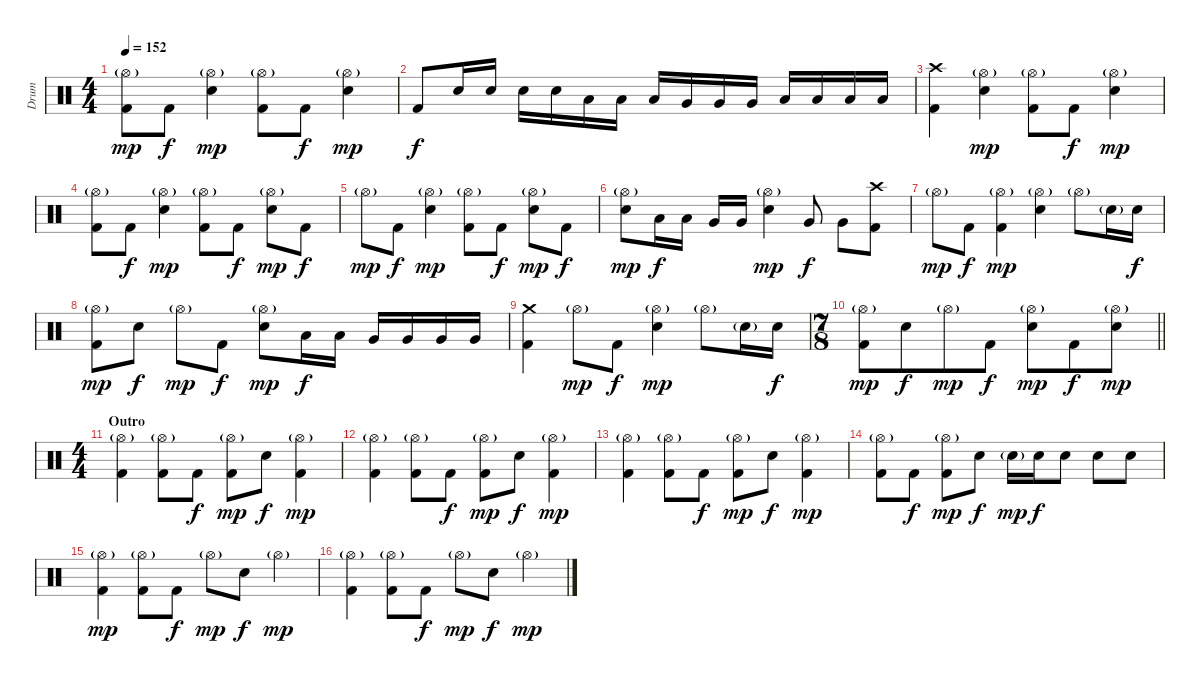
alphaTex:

\track ("Drum" "Drum") {instrument percussion}
\staff {score}
\articulation defaults
\ts (4 4)
\tempo 152
\clef neutral
\ks c
("Hi-Hat (open)"{g} "Kick (hit) 2").8{dy mp} "Kick (hit) 2".8{dy f} ("Hi-Hat (open)"{g} "Electric Snare (hit)").4{dy mp} ("Hi-Hat (open)"{g} "Kick (hit) 2").8 "Kick (hit) 2".8{dy f} ("Hi-Hat (open)"{g} "Electric Snare (hit)").4{dy mp} |
"Kick (hit) 2".8{dy f} "Electric Snare (hit)".16 "Electric Snare (hit)".16 "Electric Snare (hit)".16 "Electric Snare (hit)".16 "Low Tom (hit)".16 "Low Tom (hit)".16 "Low Tom (hit)".16 "Very Low Tom (hit)".16 "Very Low Tom (hit)".16 "Very Low Tom (hit)".16 "Low Floor Tom (hit)".16 "Low Floor Tom (hit)".16 "Low Floor Tom (hit)".16 "Low Floor Tom (hit)".16 |
("Crash high (hit)" "Kick (hit) 2").4 ("Hi-Hat (open)"{g} "Electric Snare (hit)").4{dy mp} ("Hi-Hat (open)"{g} "Kick (hit) 2").8 "Kick (hit) 2".8{dy f} ("Hi-Hat (open)"{g} "Electric Snare (hit)").4{dy mp} |
("Hi-Hat (open)"{g} "Kick (hit) 2").8 "Kick (hit) 2".8{dy f} ("Hi-Hat (open)"{g} "Electric Snare (hit)").4{dy mp} ("Hi-Hat (open)"{g} "Kick (hit) 2").8 "Kick (hit) 2".8{dy f} ("Hi-Hat (open)"{g} "Electric Snare (hit)").8{dy mp} "Kick (hit) 2".8{dy f} |
"Hi-Hat (open)"{g}.8{dy mp} "Kick (hit) 2".8{dy f} ("Hi-Hat (open)"{g} "Electric Snare (hit)").4{dy mp} ("Hi-Hat (open)"{g} "Kick (hit) 2").8 "Kick (hit) 2".8{dy f} ("Hi-Hat (open)"{g} "Electric Snare (hit)").8{dy mp} "Kick (hit) 2".8{dy f} |
("Hi-Hat (open)"{g} "Electric Snare (hit)").8{dy mp} "Low Tom (hit)".16{dy f} "Low Tom (hit)".16 "Very Low Tom (hit)".16 "Very Low Tom (hit)".16 ("Hi-Hat (open)"{g} "Electric Snare (hit)").4{dy mp} "Very Low Tom (hit)".8{dy f} "Very Low Tom (hit)".8 ("Crash high (hit)" "Kick (hit) 2").8 |
"Hi-Hat (open)"{g}.8{dy mp} "Kick (hit) 2".8{dy f} ("Hi-Hat (open)"{g} "Kick (hit) 2").4{dy mp} ("Hi-Hat (open)"{g} "Electric Snare (hit)").4 "Hi-Hat (open)"{g}.8 "Electric Snare (hit)"{g}.16 "Electric Snare (hit)".16{dy f} |
("Hi-Hat (open)"{g} "Kick (hit) 2").8{dy mp} "Electric Snare (hit)".8{dy f} "Hi-Hat (open)"{g}.8{dy mp} "Kick (hit) 2".8{dy f} ("Hi-Hat (open)"{g} "Electric Snare (hit)").8{dy mp} "Low Tom (hit)".16{dy f} "Low Tom (hit)".16 "Very Low Tom (hit)".16 "Very Low Tom (hit)".16 "Very Low Tom (hit)".16 "Very Low Tom (hit)".16 |
("Crash medium (hit)" "Kick (hit) 2").4 "Hi-Hat (open)"{g}.8{dy mp} "Kick (hit) 2".8{dy f} ("Hi-Hat (open)"{g} "Electric Snare (hit)").4{dy mp} "Hi-Hat (open)"{g}.8 "Electric Snare (hit)"{g}.16 "Electric Snare (hit)".16{dy f} |
\ts (7 8)
\barLineRight lightlight
("Hi-Hat (open)"{g} "Kick (hit) 2").8{dy mp} "Electric Snare (hit)".8{dy f} "Hi-Hat (open)"{g}.8{dy mp} "Kick (hit) 2".8{dy f} ("Hi-Hat (open)"{g} "Electric Snare (hit)").8{dy mp} "Kick (hit) 2".8{dy f} ("Hi-Hat (open)"{g} "Electric Snare (hit)").8{dy mp} |
\ts (4 4)
\section ("" "Outro")
("Hi-Hat (open)"{g} "Kick (hit) 2").4 ("Hi-Hat (open)"{g} "Kick (hit) 2").8 "Kick (hit) 2".8{dy f} ("Hi-Hat (open)"{g} "Kick (hit) 2").8{dy mp} "Electric Snare (hit)".8{dy f} ("Hi-Hat (open)"{g} "Kick (hit) 2").4{dy mp} |
("Hi-Hat (open)"{g} "Kick (hit) 2").4 ("Hi-Hat (open)"{g} "Kick (hit) 2").8 "Kick (hit) 2".8{dy f} ("Hi-Hat (open)"{g} "Kick (hit) 2").8{dy mp} "Electric Snare (hit)".8{dy f} ("Hi-Hat (open)"{g} "Kick (hit) 2").4{dy mp} |
("Hi-Hat (open)"{g} "Kick (hit) 2").4 ("Hi-Hat (open)"{g} "Kick (hit) 2").8 "Kick (hit) 2".8{dy f} ("Hi-Hat (open)"{g} "Kick (hit) 2").8{dy mp} "Electric Snare (hit)".8{dy f} ("Hi-Hat (open)"{g} "Kick (hit) 2").4{dy mp} |
("Hi-Hat (open)"{g} "Kick (hit) 2").8 "Kick (hit) 2".8{dy f} ("Hi-Hat (open)"{g} "Kick (hit) 2").8{dy mp} "Electric Snare (hit)".8{dy f} "Electric Snare (hit)"{g}.16{dy mp} "Electric Snare (hit)".16{dy f} "Electric Snare (hit)".8 "Electric Snare (hit)".8 "Electric Snare (hit)".8 |
("Hi-Hat (open)"{g} "Kick (hit) 2").4{dy mp} ("Hi-Hat (open)"{g} "Kick (hit) 2").8 "Kick (hit) 2".8{dy f} "Hi-Hat (open)"{g}.8{dy mp} "Electric Snare (hit)".8{dy f} "Hi-Hat (open)"{g}.4{dy mp} |
("Hi-Hat (open)"{g} "Kick (hit) 2").4 ("Hi-Hat (open)"{g} "Kick (hit) 2").8 "Kick (hit) 2".8{dy f} "Hi-Hat (open)"{g}.8{dy mp} "Electric Snare (hit)".8{dy f} "Hi-Hat (open)"{g}.4{dy mp}
